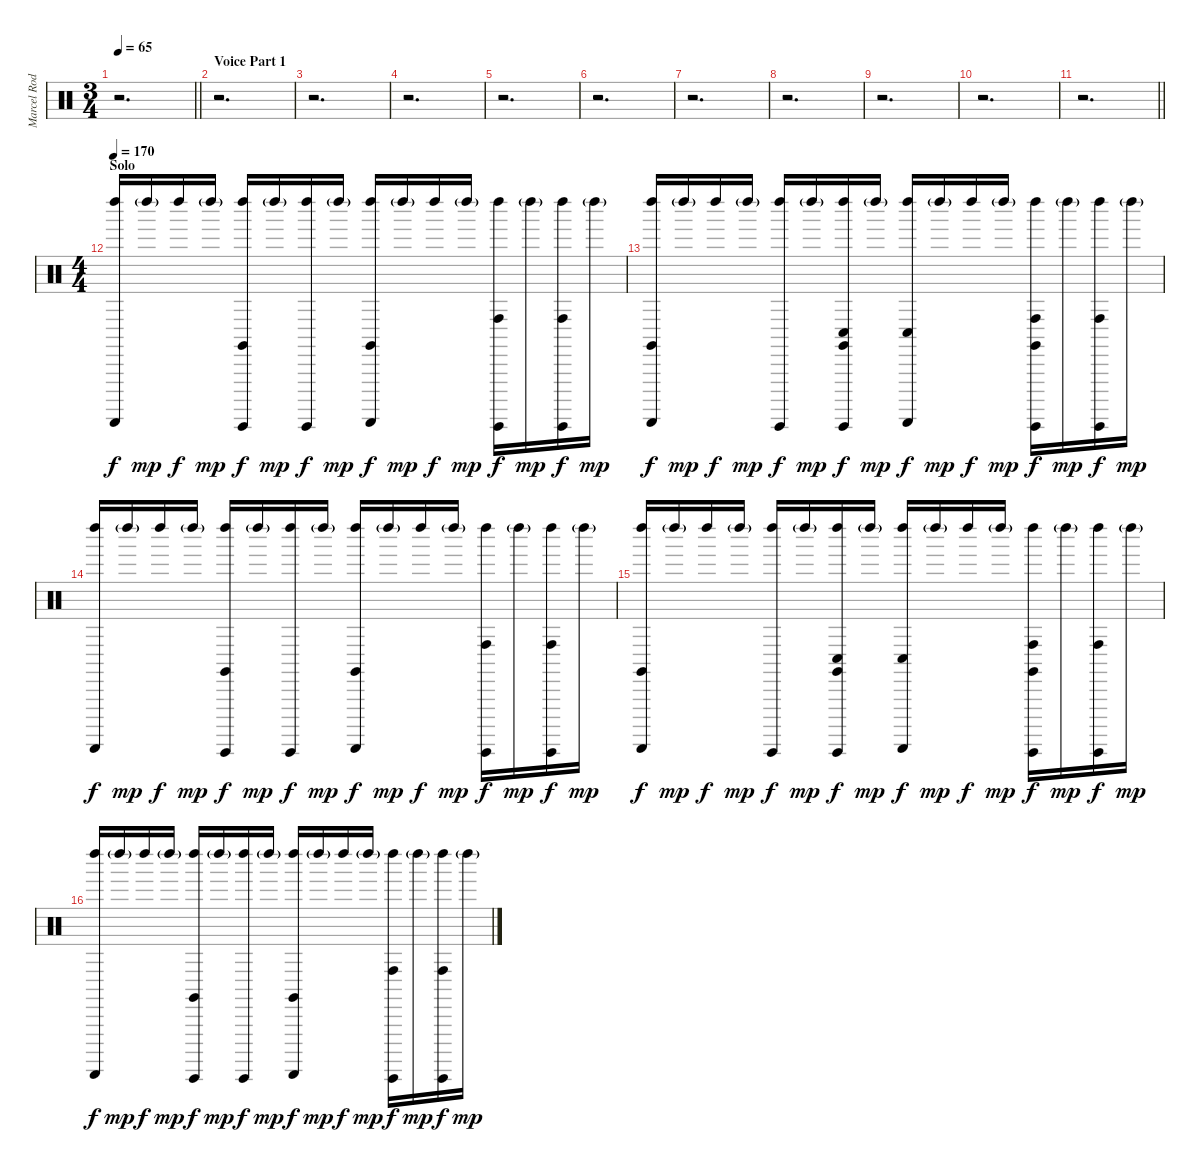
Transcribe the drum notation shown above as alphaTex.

\track ("Marcel Rodriguez-Lopez/Adrian Terrazas [" "Marcel Rod") {instrument percussion}
\staff {score}
\articulation defaults
\ts (3 4)
\tempo 65
\clef neutral
\barLineRight lightlight
\ks c
r.2{d dy mp} |
\section ("" "Voice Part 1")
r.2{d} |
r.2{d} |
r.2{d} |
r.2{d} |
r.2{d} |
r.2{d} |
r.2{d} |
r.2{d} |
r.2{d} |
\barLineRight lightlight
r.2{d} |
\ts (4 4)
\section ("" "Solo   ")
\tempo 170
("Guiro (scrap-return)" "Left Maraca (hit)").16{dy f} "Left Maraca (hit)"{g}.16{dy mp} "Left Maraca (hit)".16{dy f} "Left Maraca (hit)"{g}.16{dy mp} ("Guiro (hit)" "Left Maraca (hit)" "Claves (hit)").16{dy f} "Left Maraca (hit)"{g}.16{dy mp} ("Guiro (hit)" "Left Maraca (hit)").16{dy f} "Left Maraca (hit)"{g}.16{dy mp} ("Guiro (scrap-return)" "Left Maraca (hit)" "Claves (hit)").16{dy f} "Left Maraca (hit)"{g}.16{dy mp} "Left Maraca (hit)".16{dy f} "Left Maraca (hit)"{g}.16{dy mp} ("Guiro (hit)" "Left Maraca (hit)" "Conga high (hit)").16{dy f} "Left Maraca (hit)"{g}.16{dy mp} ("Guiro (hit)" "Left Maraca (hit)" "Conga high (hit)").16{dy f} "Left Maraca (hit)"{g}.16{dy mp} |
("Guiro (scrap-return)" "Left Maraca (hit)" "Claves (hit)").16{dy f} "Left Maraca (hit)"{g}.16{dy mp} "Left Maraca (hit)".16{dy f} "Left Maraca (hit)"{g}.16{dy mp} ("Guiro (hit)" "Left Maraca (hit)").16{dy f} "Left Maraca (hit)"{g}.16{dy mp} ("Guiro (hit)" "Left Maraca (hit)" "Claves (hit)" "Conga low (hit)").16{dy f} "Left Maraca (hit)"{g}.16{dy mp} ("Guiro (scrap-return)" "Left Maraca (hit)" "Conga low (hit)").16{dy f} "Left Maraca (hit)"{g}.16{dy mp} "Left Maraca (hit)".16{dy f} "Left Maraca (hit)"{g}.16{dy mp} ("Guiro (hit)" "Left Maraca (hit)" "Claves (hit)" "Conga high (hit)").16{dy f} "Left Maraca (hit)"{g}.16{dy mp} ("Guiro (hit)" "Left Maraca (hit)" "Conga high (hit)").16{dy f} "Left Maraca (hit)"{g}.16{dy mp} |
("Guiro (scrap-return)" "Left Maraca (hit)").16{dy f} "Left Maraca (hit)"{g}.16{dy mp} "Left Maraca (hit)".16{dy f} "Left Maraca (hit)"{g}.16{dy mp} ("Guiro (hit)" "Left Maraca (hit)" "Claves (hit)").16{dy f} "Left Maraca (hit)"{g}.16{dy mp} ("Guiro (hit)" "Left Maraca (hit)").16{dy f} "Left Maraca (hit)"{g}.16{dy mp} ("Guiro (scrap-return)" "Left Maraca (hit)" "Claves (hit)").16{dy f} "Left Maraca (hit)"{g}.16{dy mp} "Left Maraca (hit)".16{dy f} "Left Maraca (hit)"{g}.16{dy mp} ("Guiro (hit)" "Left Maraca (hit)" "Conga high (hit)").16{dy f} "Left Maraca (hit)"{g}.16{dy mp} ("Guiro (hit)" "Left Maraca (hit)" "Conga high (hit)").16{dy f} "Left Maraca (hit)"{g}.16{dy mp} |
("Guiro (scrap-return)" "Left Maraca (hit)" "Claves (hit)").16{dy f} "Left Maraca (hit)"{g}.16{dy mp} "Left Maraca (hit)".16{dy f} "Left Maraca (hit)"{g}.16{dy mp} ("Guiro (hit)" "Left Maraca (hit)").16{dy f} "Left Maraca (hit)"{g}.16{dy mp} ("Guiro (hit)" "Left Maraca (hit)" "Claves (hit)" "Conga low (hit)").16{dy f} "Left Maraca (hit)"{g}.16{dy mp} ("Guiro (scrap-return)" "Left Maraca (hit)" "Conga low (hit)").16{dy f} "Left Maraca (hit)"{g}.16{dy mp} "Left Maraca (hit)".16{dy f} "Left Maraca (hit)"{g}.16{dy mp} ("Guiro (hit)" "Left Maraca (hit)" "Claves (hit)" "Conga high (hit)").16{dy f} "Left Maraca (hit)"{g}.16{dy mp} ("Guiro (hit)" "Left Maraca (hit)" "Conga high (hit)").16{dy f} "Left Maraca (hit)"{g}.16{dy mp} |
("Guiro (scrap-return)" "Left Maraca (hit)").16{dy f} "Left Maraca (hit)"{g}.16{dy mp} "Left Maraca (hit)".16{dy f} "Left Maraca (hit)"{g}.16{dy mp} ("Guiro (hit)" "Left Maraca (hit)" "Claves (hit)").16{dy f} "Left Maraca (hit)"{g}.16{dy mp} ("Guiro (hit)" "Left Maraca (hit)").16{dy f} "Left Maraca (hit)"{g}.16{dy mp} ("Guiro (scrap-return)" "Left Maraca (hit)" "Claves (hit)").16{dy f} "Left Maraca (hit)"{g}.16{dy mp} "Left Maraca (hit)".16{dy f} "Left Maraca (hit)"{g}.16{dy mp} ("Guiro (hit)" "Left Maraca (hit)" "Conga high (hit)").16{dy f} "Left Maraca (hit)"{g}.16{dy mp} ("Guiro (hit)" "Left Maraca (hit)" "Conga high (hit)").16{dy f} "Left Maraca (hit)"{g}.16{dy mp}
